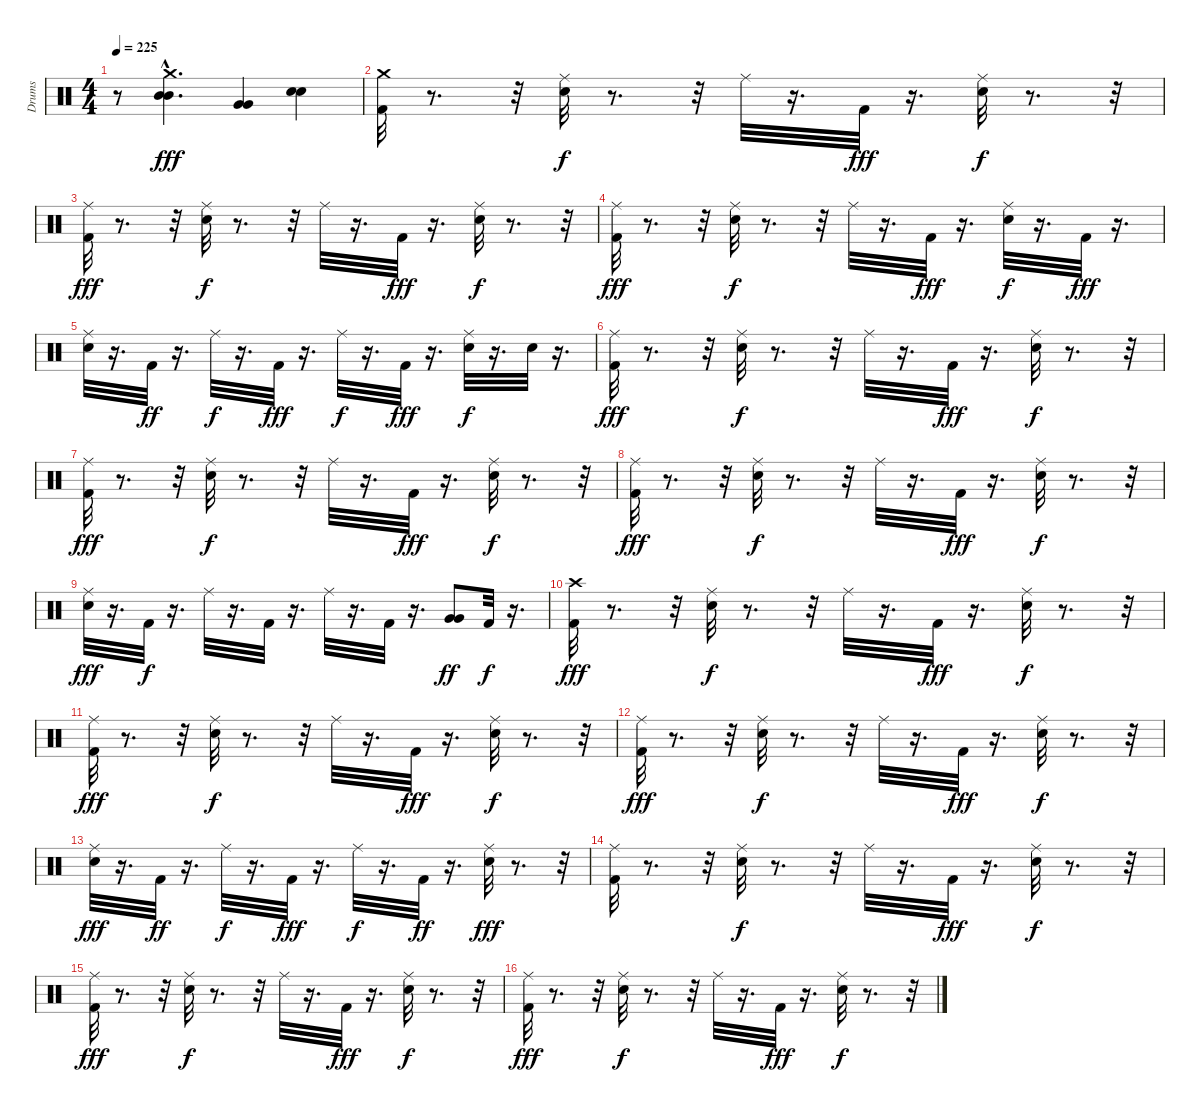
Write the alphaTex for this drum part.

\track ("Drums" "Drums") {instrument percussion}
\staff {score}
\articulation defaults
\ts (4 4)
\tempo 225
\clef neutral
\ks c
r.8{dy fff} ("Crash medium (hit)" "Mid Tom (hit)"{hac} "Mid Tom (hit)").4{d} ("Very Low Tom (hit)" "Very Low Tom (hit)").4 ("Snare (hit) 2" "Snare (hit) 2").4 |
("Crash medium (hit)" "Kick (hit) 2").32 r.8{d} r.32 ("Ride (middle)" "Snare (hit) 2").32{dy f} r.8{d} r.32 "Ride (middle)".32 r.16{d} "Kick (hit) 2".32{dy fff} r.16{d} ("Ride (middle)" "Snare (hit) 2").32{dy f} r.8{d} r.32 |
("Kick (hit) 2" "Ride (middle)").32{dy fff} r.8{d} r.32 ("Snare (hit) 2" "Ride (middle)").32{dy f} r.8{d} r.32 "Ride (middle)".32 r.16{d} "Kick (hit) 2".32{dy fff} r.16{d} ("Snare (hit) 2" "Ride (middle)").32{dy f} r.8{d} r.32 |
("Kick (hit) 2" "Ride (middle)").32{dy fff} r.8{d} r.32 ("Snare (hit) 2" "Ride (middle)").32{dy f} r.8{d} r.32 "Ride (middle)".32 r.16{d} "Kick (hit) 2".32{dy fff} r.16{d} ("Snare (hit) 2" "Ride (middle)").32{dy f} r.16{d} "Kick (hit) 2".32{dy fff} r.16{d} |
("Snare (hit) 2" "Ride (middle)").32 r.16{d} "Kick (hit) 2".32{dy ff} r.16{d} "Ride (middle)".32{dy f} r.16{d} "Kick (hit) 2".32{dy fff} r.16{d} "Ride (middle)".32{dy f} r.16{d} "Kick (hit) 2".32{dy fff} r.16{d} ("Snare (hit) 2" "Ride (middle)").32{dy f} r.16{d} "Snare (hit) 2".32 r.16{d} |
("Kick (hit) 2" "Ride (middle)").32{dy fff} r.8{d} r.32 ("Snare (hit) 2" "Ride (middle)").32{dy f} r.8{d} r.32 "Ride (middle)".32 r.16{d} "Kick (hit) 2".32{dy fff} r.16{d} ("Snare (hit) 2" "Ride (middle)").32{dy f} r.8{d} r.32 |
("Kick (hit) 2" "Ride (middle)").32{dy fff} r.8{d} r.32 ("Snare (hit) 2" "Ride (middle)").32{dy f} r.8{d} r.32 "Ride (middle)".32 r.16{d} "Kick (hit) 2".32{dy fff} r.16{d} ("Snare (hit) 2" "Ride (middle)").32{dy f} r.8{d} r.32 |
("Kick (hit) 2" "Ride (middle)").32{dy fff} r.8{d} r.32 ("Snare (hit) 2" "Ride (middle)").32{dy f} r.8{d} r.32 "Ride (middle)".32 r.16{d} "Kick (hit) 2".32{dy fff} r.16{d} ("Snare (hit) 2" "Ride (middle)").32{dy f} r.8{d} r.32 |
("Ride (middle)" "Snare (hit) 2").32{dy fff} r.16{d} "Kick (hit) 2".32{dy f} r.16{d} "Ride (middle)".32 r.16{d} "Kick (hit) 2".32 r.16{d} "Ride (middle)".32 r.16{d} "Kick (hit) 2".32 r.16{d} ("Very Low Tom (hit)" "Very Low Tom (hit)").8{dy ff} "Kick (hit) 2".32{dy f} r.16{d} |
("Crash high (hit)" "Kick (hit) 2").32{dy fff} r.8{d} r.32 ("Snare (hit) 2" "Ride (middle)").32{dy f} r.8{d} r.32 "Ride (middle)".32 r.16{d} "Kick (hit) 2".32{dy fff} r.16{d} ("Snare (hit) 2" "Ride (middle)").32{dy f} r.8{d} r.32 |
("Kick (hit) 2" "Ride (middle)").32{dy fff} r.8{d} r.32 ("Snare (hit) 2" "Ride (middle)").32{dy f} r.8{d} r.32 "Ride (middle)".32 r.16{d} "Kick (hit) 2".32{dy fff} r.16{d} ("Snare (hit) 2" "Ride (middle)").32{dy f} r.8{d} r.32 |
("Kick (hit) 2" "Ride (middle)").32{dy fff} r.8{d} r.32 ("Snare (hit) 2" "Ride (middle)").32{dy f} r.8{d} r.32 "Ride (middle)".32 r.16{d} "Kick (hit) 2".32{dy fff} r.16{d} ("Snare (hit) 2" "Ride (middle)").32{dy f} r.8{d} r.32 |
("Ride (middle)" "Snare (hit) 2").32{dy fff} r.16{d} "Kick (hit) 2".32{dy ff} r.16{d} "Ride (middle)".32{dy f} r.16{d} "Kick (hit) 2".32{dy fff} r.16{d} "Ride (middle)".32{dy f} r.16{d} "Kick (hit) 2".32{dy ff} r.16{d} ("Ride (middle)" "Snare (hit) 2").32{dy fff} r.8{d} r.32 |
("Kick (hit) 2" "Ride (middle)").32 r.8{d} r.32 ("Snare (hit) 2" "Ride (middle)").32{dy f} r.8{d} r.32 "Ride (middle)".32 r.16{d} "Kick (hit) 2".32{dy fff} r.16{d} ("Snare (hit) 2" "Ride (middle)").32{dy f} r.8{d} r.32 |
("Kick (hit) 2" "Ride (middle)").32{dy fff} r.8{d} r.32 ("Snare (hit) 2" "Ride (middle)").32{dy f} r.8{d} r.32 "Ride (middle)".32 r.16{d} "Kick (hit) 2".32{dy fff} r.16{d} ("Snare (hit) 2" "Ride (middle)").32{dy f} r.8{d} r.32 |
("Kick (hit) 2" "Ride (middle)").32{dy fff} r.8{d} r.32 ("Snare (hit) 2" "Ride (middle)").32{dy f} r.8{d} r.32 "Ride (middle)".32 r.16{d} "Kick (hit) 2".32{dy fff} r.16{d} ("Snare (hit) 2" "Ride (middle)").32{dy f} r.8{d} r.32
